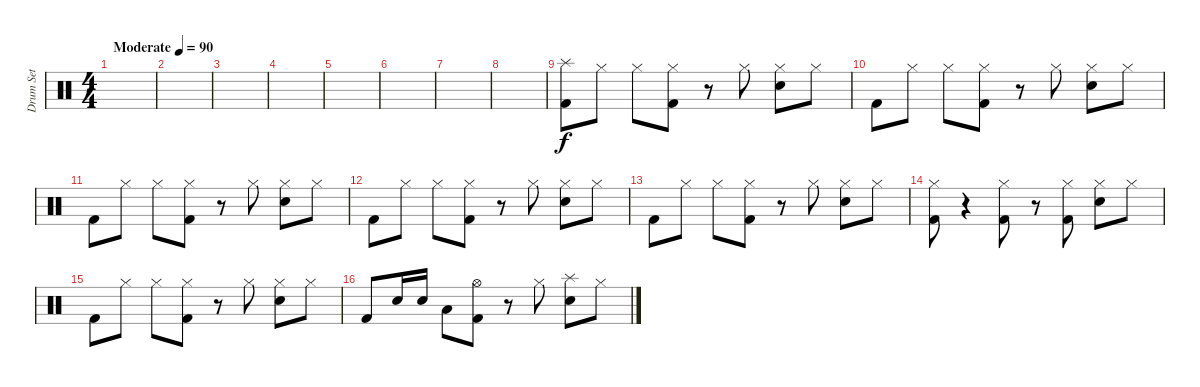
\track ("Drum Set" "Drum Set") {instrument percussion}
\staff {score}
\articulation defaults
\ts (4 4)
\tempo (90 "Moderate")
\clef neutral
\ks c
|
|
|
|
|
|
|
|
("Splash (hit)" "Kick (hit) 2").8 "Hi-Hat (closed)".8 "Hi-Hat (closed)".8 ("Hi-Hat (closed)" "Kick (hit) 2").8 r.8 "Hi-Hat (closed)".8 ("Hi-Hat (closed)" "Snare (hit) 2").8 "Hi-Hat (closed)".8 |
"Kick (hit) 2".8 "Hi-Hat (closed)".8 "Hi-Hat (closed)".8 ("Hi-Hat (closed)" "Kick (hit) 2").8 r.8 "Hi-Hat (closed)".8 ("Hi-Hat (closed)" "Snare (hit) 2").8 "Hi-Hat (closed)".8 |
"Kick (hit) 2".8 "Hi-Hat (closed)".8 "Hi-Hat (closed)".8 ("Hi-Hat (closed)" "Kick (hit) 2").8 r.8 "Hi-Hat (closed)".8 ("Hi-Hat (closed)" "Snare (hit) 2").8 "Hi-Hat (closed)".8 |
"Kick (hit) 2".8 "Hi-Hat (closed)".8 "Hi-Hat (closed)".8 ("Hi-Hat (closed)" "Kick (hit) 2").8 r.8 "Hi-Hat (closed)".8 ("Hi-Hat (closed)" "Snare (hit) 2").8 "Hi-Hat (closed)".8 |
"Kick (hit) 2".8 "Hi-Hat (closed)".8 "Hi-Hat (closed)".8 ("Hi-Hat (closed)" "Kick (hit) 2").8 r.8 "Hi-Hat (closed)".8 ("Hi-Hat (closed)" "Snare (hit) 2").8 "Hi-Hat (closed)".8 |
("Hi-Hat (closed)" "Kick (hit) 2").8 r.4 ("Hi-Hat (closed)" "Kick (hit) 2").8 r.8 ("Hi-Hat (closed)" "Kick (hit) 2").8 ("Hi-Hat (closed)" "Snare (hit) 2").8 "Hi-Hat (closed)".8 |
"Kick (hit) 2".8 "Hi-Hat (closed)".8 "Hi-Hat (closed)".8 ("Hi-Hat (closed)" "Kick (hit) 2").8 r.8 "Hi-Hat (closed)".8 ("Hi-Hat (closed)" "Snare (hit) 2").8 "Hi-Hat (closed)".8 |
"Kick (hit) 2".8 "Snare (hit) 2".16 "Snare (hit) 2".16 "Low Floor Tom (hit)".8 ("Hi-Hat (open)" "Kick (hit) 2").8 r.8 "Hi-Hat (closed)".8 ("Splash (hit)" "Snare (hit) 2").8 "Hi-Hat (closed)".8
